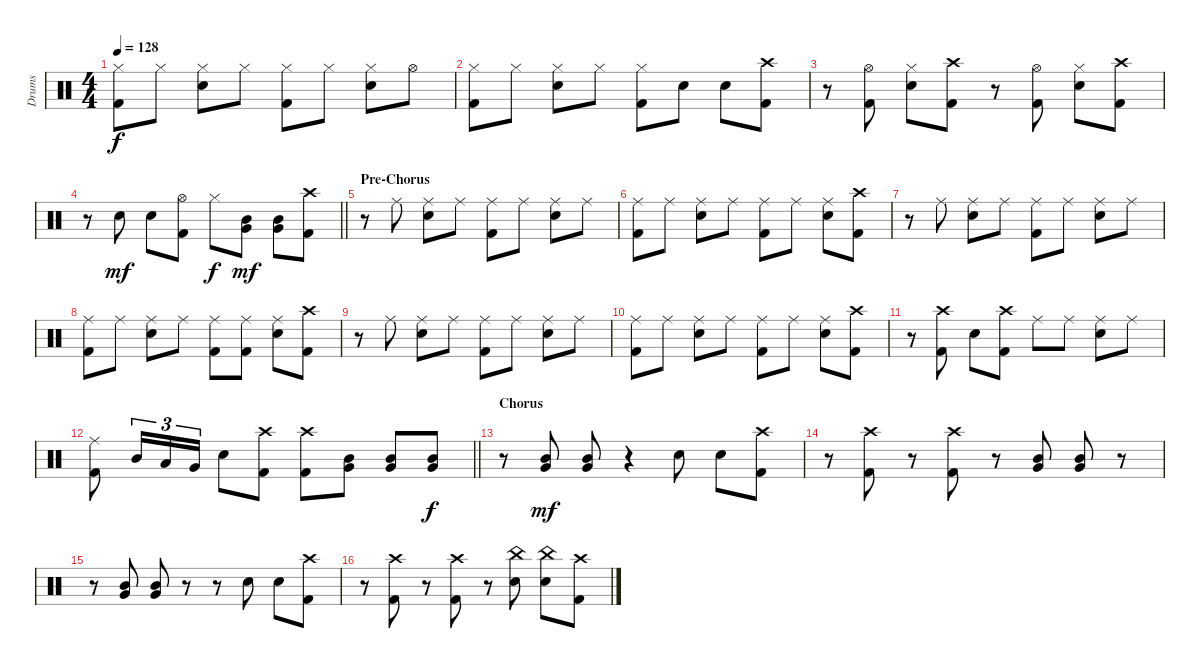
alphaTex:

\track ("Drums" "Drums") {instrument percussion}
\staff {score}
\articulation defaults
\ts (4 4)
\tempo 128
\clef neutral
\ks c
("Hi-Hat (closed)" "Kick (hit) 2").8{dy f} "Hi-Hat (closed)".8 ("Hi-Hat (closed)" "Snare (hit) 2").8 "Hi-Hat (closed)".8 ("Hi-Hat (closed)" "Kick (hit) 2").8 "Hi-Hat (closed)".8 ("Hi-Hat (closed)" "Snare (hit) 2").8 "Hi-Hat (open)".8 |
("Hi-Hat (closed)" "Kick (hit) 2").8 "Hi-Hat (closed)".8 ("Hi-Hat (closed)" "Snare (hit) 2").8 "Hi-Hat (closed)".8 ("Hi-Hat (closed)" "Kick (hit) 2").8 "Snare (hit) 2".8 "Snare (hit) 2".8 ("Crash high (hit)" "Kick (hit) 2").8 |
r.8 ("Hi-Hat (open)" "Kick (hit) 2").8 ("Hi-Hat (closed)" "Snare (hit) 2").8 ("Crash high (hit)" "Kick (hit) 2").8 r.8 ("Hi-Hat (open)" "Kick (hit) 2").8 ("Hi-Hat (closed)" "Snare (hit) 2").8 ("Crash high (hit)" "Kick (hit) 2").8 |
\barLineRight lightlight
r.8 "Snare (hit) 2".8{dy mf} "Snare (hit) 2".8 ("Hi-Hat (open)" "Kick (hit) 2").8 "Hi-Hat (closed)".8{dy f} ("Mid Tom (hit)" "Very Low Tom (hit)").8{dy mf} ("Mid Tom (hit)" "Very Low Tom (hit)").8 ("Crash high (hit)" "Kick (hit) 2").8 |
\section ("" "Pre-Chorus")
r.8 "Ride (middle)".8 ("Ride (middle)" "Snare (hit) 2").8 "Ride (middle)".8 ("Ride (middle)" "Kick (hit) 2").8 "Ride (middle)".8 ("Ride (middle)" "Snare (hit) 2").8 "Ride (middle)".8 |
("Ride (middle)" "Kick (hit) 2").8 "Ride (middle)".8 ("Ride (middle)" "Snare (hit) 2").8 "Ride (middle)".8 ("Ride (middle)" "Kick (hit) 2").8 "Ride (middle)".8 ("Ride (middle)" "Snare (hit) 2").8 ("Crash high (hit)" "Kick (hit) 2").8 |
r.8 "Ride (middle)".8 ("Ride (middle)" "Snare (hit) 2").8 "Ride (middle)".8 ("Ride (middle)" "Kick (hit) 2").8 "Ride (middle)".8 ("Ride (middle)" "Snare (hit) 2").8 "Ride (middle)".8 |
("Ride (middle)" "Kick (hit) 2").8 "Ride (middle)".8 ("Ride (middle)" "Snare (hit) 2").8 "Ride (middle)".8 ("Ride (middle)" "Kick (hit) 2").8 ("Ride (middle)" "Kick (hit) 2").8 ("Ride (middle)" "Snare (hit) 2").8 ("Crash high (hit)" "Kick (hit) 2").8 |
r.8 "Ride (middle)".8 ("Ride (middle)" "Snare (hit) 2").8 "Ride (middle)".8 ("Ride (middle)" "Kick (hit) 2").8 "Ride (middle)".8 ("Ride (middle)" "Snare (hit) 2").8 "Ride (middle)".8 |
("Ride (middle)" "Kick (hit) 2").8 "Ride (middle)".8 ("Ride (middle)" "Snare (hit) 2").8 "Ride (middle)".8 ("Ride (middle)" "Kick (hit) 2").8 "Ride (middle)".8 ("Ride (middle)" "Snare (hit) 2").8 ("Crash high (hit)" "Kick (hit) 2").8 |
r.8 ("Crash high (hit)" "Kick (hit) 2").8 "Snare (hit) 2".8 ("Crash high (hit)" "Kick (hit) 2").8 "Ride (middle)".8 "Ride (middle)".8 ("Ride (middle)" "Snare (hit) 2").8 "Ride (middle)".8 |
\barLineRight lightlight
("Ride (middle)" "Kick (hit) 2").8 "Mid Tom (hit)".16{tu (3 2)} "Low Tom (hit)".16{tu (3 2)} "Very Low Tom (hit)".16{tu (3 2)} "Snare (hit) 2".8 ("Crash high (hit)" "Kick (hit) 2").8 ("Crash high (hit)" "Kick (hit) 2").8 ("Very Low Tom (hit)" "Mid Tom (hit)").8 ("Very Low Tom (hit)" "Mid Tom (hit)").8 ("Very Low Tom (hit)" "Mid Tom (hit)").8{dy f} |
\section ("" "Chorus")
r.8 ("Mid Tom (hit)" "Very Low Tom (hit)").8{dy mf} ("Mid Tom (hit)" "Very Low Tom (hit)").8 r.4 "Snare (hit) 2".8 "Snare (hit) 2".8 ("Crash high (hit)" "Kick (hit) 2").8 |
r.8 ("Crash high (hit)" "Kick (hit) 2").8 r.8 ("Crash high (hit)" "Kick (hit) 2").8 r.8 ("Mid Tom (hit)" "Very Low Tom (hit)").8 ("Mid Tom (hit)" "Very Low Tom (hit)").8 r.8 |
r.8 ("Mid Tom (hit)" "Very Low Tom (hit)").8 ("Mid Tom (hit)" "Very Low Tom (hit)").8 r.8 r.8 "Snare (hit) 2".8 "Snare (hit) 2".8 ("Crash high (hit)" "Kick (hit) 2").8 |
r.8 ("Crash high (hit)" "Kick (hit) 2").8 r.8 ("Crash high (hit)" "Kick (hit) 2").8 r.8 ("Snare (hit) 2" "China (hit)").8 ("Snare (hit) 2" "China (hit)").8 ("Crash high (hit)" "Kick (hit) 2").8
